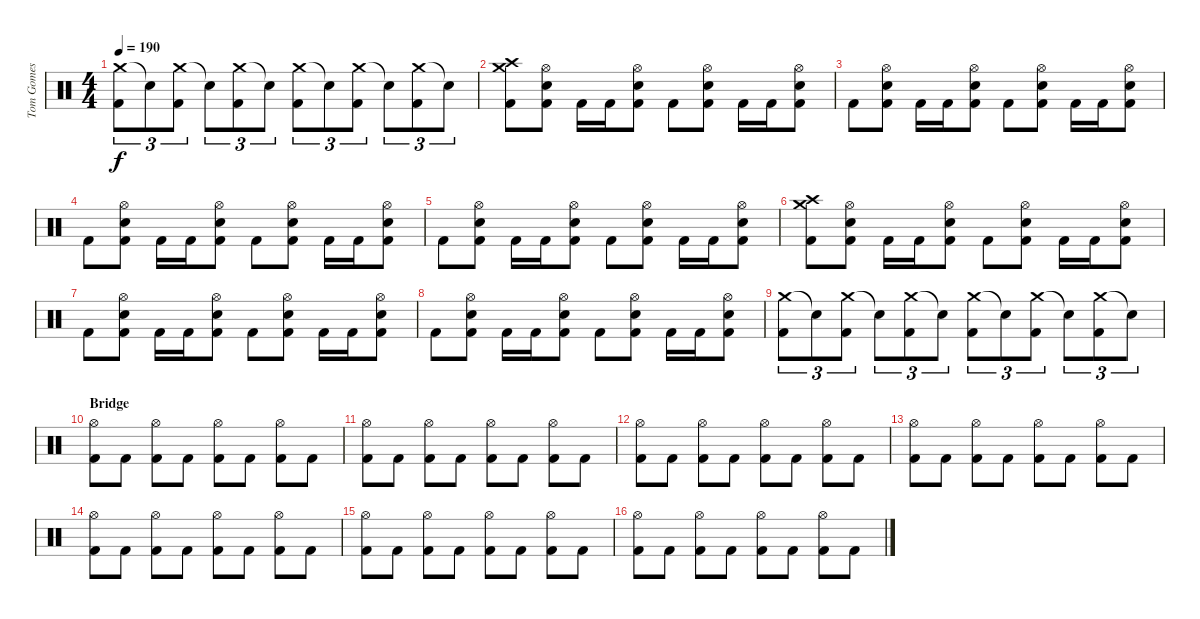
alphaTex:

\track ("Tom Gomes" "Tom Gomes") {instrument percussion}
\staff {score}
\articulation defaults
\ts (4 4)
\tempo 190
\clef neutral
\ks c
("Crash medium (hit)" "Kick (hit) 2").8{tu (3 2) dy f} "Snare (hit)"{t}.8{tu (3 2)} ("Crash medium (hit)" "Kick (hit) 2").8{tu (3 2)} "Snare (hit)"{t}.8{tu (3 2)} ("Crash medium (hit)" "Kick (hit) 2").8{tu (3 2)} "Snare (hit)"{t}.8{tu (3 2)} ("Crash medium (hit)" "Kick (hit) 2").8{tu (3 2)} "Snare (hit)"{t}.8{tu (3 2)} ("Crash medium (hit)" "Kick (hit) 2").8{tu (3 2)} "Snare (hit)"{t}.8{tu (3 2)} ("Crash medium (hit)" "Kick (hit) 2").8{tu (3 2)} "Snare (hit)"{t}.8{tu (3 2)} |
("Crash high (hit)" "Crash medium (hit)" "Kick (hit) 2").8 ("Hi-Hat (open)" "Snare (hit) 2" "Kick (hit) 2").8 "Kick (hit) 2".16 "Kick (hit) 2".16 ("Hi-Hat (open)" "Snare (hit) 2" "Kick (hit) 2").8 "Kick (hit) 2".8 ("Hi-Hat (open)" "Snare (hit) 2" "Kick (hit) 2").8 "Kick (hit) 2".16 "Kick (hit) 2".16 ("Hi-Hat (open)" "Snare (hit) 2" "Kick (hit) 2").8 |
"Kick (hit) 2".8 ("Hi-Hat (open)" "Snare (hit) 2" "Kick (hit) 2").8 "Kick (hit) 2".16 "Kick (hit) 2".16 ("Hi-Hat (open)" "Snare (hit) 2" "Kick (hit) 2").8 "Kick (hit) 2".8 ("Hi-Hat (open)" "Snare (hit) 2" "Kick (hit) 2").8 "Kick (hit) 2".16 "Kick (hit) 2".16 ("Hi-Hat (open)" "Snare (hit) 2" "Kick (hit) 2").8 |
"Kick (hit) 2".8 ("Hi-Hat (open)" "Snare (hit) 2" "Kick (hit) 2").8 "Kick (hit) 2".16 "Kick (hit) 2".16 ("Hi-Hat (open)" "Snare (hit) 2" "Kick (hit) 2").8 "Kick (hit) 2".8 ("Hi-Hat (open)" "Snare (hit) 2" "Kick (hit) 2").8 "Kick (hit) 2".16 "Kick (hit) 2".16 ("Hi-Hat (open)" "Snare (hit) 2" "Kick (hit) 2").8 |
"Kick (hit) 2".8 ("Hi-Hat (open)" "Snare (hit) 2" "Kick (hit) 2").8 "Kick (hit) 2".16 "Kick (hit) 2".16 ("Hi-Hat (open)" "Snare (hit) 2" "Kick (hit) 2").8 "Kick (hit) 2".8 ("Hi-Hat (open)" "Snare (hit) 2" "Kick (hit) 2").8 "Kick (hit) 2".16 "Kick (hit) 2".16 ("Hi-Hat (open)" "Snare (hit) 2" "Kick (hit) 2").8 |
("Crash high (hit)" "Crash medium (hit)" "Kick (hit) 2").8 ("Hi-Hat (open)" "Snare (hit) 2" "Kick (hit) 2").8 "Kick (hit) 2".16 "Kick (hit) 2".16 ("Hi-Hat (open)" "Snare (hit) 2" "Kick (hit) 2").8 "Kick (hit) 2".8 ("Hi-Hat (open)" "Snare (hit) 2" "Kick (hit) 2").8 "Kick (hit) 2".16 "Kick (hit) 2".16 ("Hi-Hat (open)" "Snare (hit) 2" "Kick (hit) 2").8 |
"Kick (hit) 2".8 ("Hi-Hat (open)" "Snare (hit) 2" "Kick (hit) 2").8 "Kick (hit) 2".16 "Kick (hit) 2".16 ("Hi-Hat (open)" "Snare (hit) 2" "Kick (hit) 2").8 "Kick (hit) 2".8 ("Hi-Hat (open)" "Snare (hit) 2" "Kick (hit) 2").8 "Kick (hit) 2".16 "Kick (hit) 2".16 ("Hi-Hat (open)" "Snare (hit) 2" "Kick (hit) 2").8 |
"Kick (hit) 2".8 ("Hi-Hat (open)" "Snare (hit) 2" "Kick (hit) 2").8 "Kick (hit) 2".16 "Kick (hit) 2".16 ("Hi-Hat (open)" "Snare (hit) 2" "Kick (hit) 2").8 "Kick (hit) 2".8 ("Hi-Hat (open)" "Snare (hit) 2" "Kick (hit) 2").8 "Kick (hit) 2".16 "Kick (hit) 2".16 ("Hi-Hat (open)" "Snare (hit) 2" "Kick (hit) 2").8 |
("Crash medium (hit)" "Kick (hit) 2").8{tu (3 2)} "Snare (hit)"{t}.8{tu (3 2)} ("Crash medium (hit)" "Kick (hit) 2").8{tu (3 2)} "Snare (hit)"{t}.8{tu (3 2)} ("Crash medium (hit)" "Kick (hit) 2").8{tu (3 2)} "Snare (hit)"{t}.8{tu (3 2)} ("Crash medium (hit)" "Kick (hit) 2").8{tu (3 2)} "Snare (hit)"{t}.8{tu (3 2)} ("Crash medium (hit)" "Kick (hit) 2").8{tu (3 2)} "Snare (hit)"{t}.8{tu (3 2)} ("Crash medium (hit)" "Kick (hit) 2").8{tu (3 2)} "Snare (hit)"{t}.8{tu (3 2)} |
\section ("" "Bridge")
("Hi-Hat (open)" "Kick (hit) 2").8 "Kick (hit) 2".8 ("Hi-Hat (open)" "Kick (hit) 2").8 "Kick (hit) 2".8 ("Hi-Hat (open)" "Kick (hit) 2").8 "Kick (hit) 2".8 ("Hi-Hat (open)" "Kick (hit) 2").8 "Kick (hit) 2".8 |
("Hi-Hat (open)" "Kick (hit) 2").8 "Kick (hit) 2".8 ("Hi-Hat (open)" "Kick (hit) 2").8 "Kick (hit) 2".8 ("Hi-Hat (open)" "Kick (hit) 2").8 "Kick (hit) 2".8 ("Hi-Hat (open)" "Kick (hit) 2").8 "Kick (hit) 2".8 |
("Hi-Hat (open)" "Kick (hit) 2").8 "Kick (hit) 2".8 ("Hi-Hat (open)" "Kick (hit) 2").8 "Kick (hit) 2".8 ("Hi-Hat (open)" "Kick (hit) 2").8 "Kick (hit) 2".8 ("Hi-Hat (open)" "Kick (hit) 2").8 "Kick (hit) 2".8 |
("Hi-Hat (open)" "Kick (hit) 2").8 "Kick (hit) 2".8 ("Hi-Hat (open)" "Kick (hit) 2").8 "Kick (hit) 2".8 ("Hi-Hat (open)" "Kick (hit) 2").8 "Kick (hit) 2".8 ("Hi-Hat (open)" "Kick (hit) 2").8 "Kick (hit) 2".8 |
("Hi-Hat (open)" "Kick (hit) 2").8 "Kick (hit) 2".8 ("Hi-Hat (open)" "Kick (hit) 2").8 "Kick (hit) 2".8 ("Hi-Hat (open)" "Kick (hit) 2").8 "Kick (hit) 2".8 ("Hi-Hat (open)" "Kick (hit) 2").8 "Kick (hit) 2".8 |
("Hi-Hat (open)" "Kick (hit) 2").8 "Kick (hit) 2".8 ("Hi-Hat (open)" "Kick (hit) 2").8 "Kick (hit) 2".8 ("Hi-Hat (open)" "Kick (hit) 2").8 "Kick (hit) 2".8 ("Hi-Hat (open)" "Kick (hit) 2").8 "Kick (hit) 2".8 |
("Hi-Hat (open)" "Kick (hit) 2").8 "Kick (hit) 2".8 ("Hi-Hat (open)" "Kick (hit) 2").8 "Kick (hit) 2".8 ("Hi-Hat (open)" "Kick (hit) 2").8 "Kick (hit) 2".8 ("Hi-Hat (open)" "Kick (hit) 2").8 "Kick (hit) 2".8
